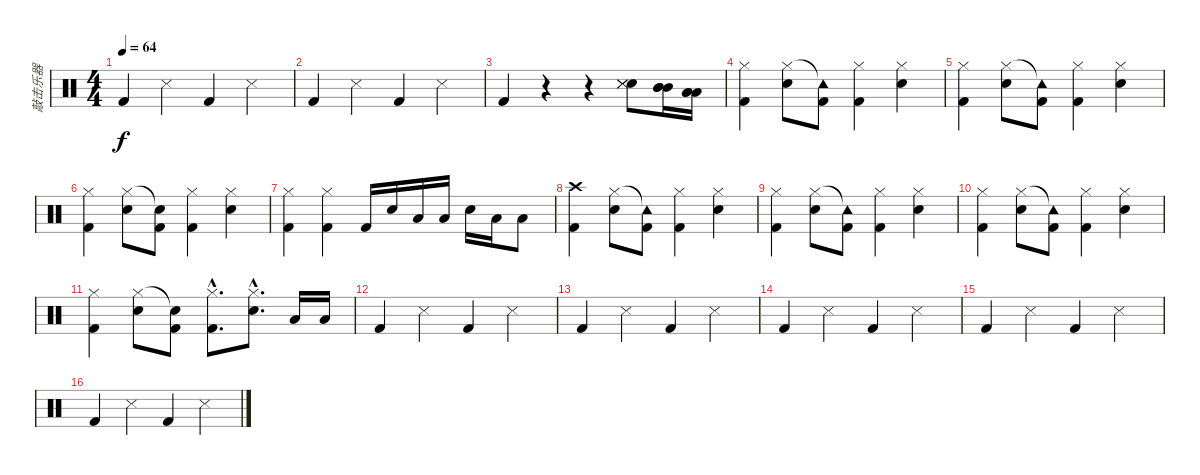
\track ("敲击乐器" "敲击乐器") {instrument percussion}
\staff {score}
\articulation defaults
\ts (4 4)
\tempo 64
\clef neutral
\ks c "Kick (hit) 2".4{dy f} "Snare (side stick) 3".4 "Kick (hit) 2".4 "Snare (side stick) 3".4
|
"Kick (hit) 2".4 "Snare (side stick) 3".4 "Kick (hit) 2".4 "Snare (side stick) 3".4 |
"Kick (hit) 2".4 r.4 r.4 ("Snare (hit) 2" "Metronome (hit)" "Metronome (hit)" "Metronome (hit)").8 ("Mid Tom (hit)" "Mid Tom (hit)" "Mid Tom (hit)").16 ("Low Tom (hit)" "Low Tom (hit)" "Low Tom (hit)").16 |
("Kick (hit) 2" "Hi-Hat (closed)").4 ("Electric Snare (hit)" "Hi-Hat (closed)").8 ("Kick (hit) 2" "Tambourine (hit)"{t}).8 ("Kick (hit) 2" "Hi-Hat (closed)").4 ("Electric Snare (hit)" "Hi-Hat (closed)").4 |
("Kick (hit) 2" "Hi-Hat (closed)").4 ("Electric Snare (hit)" "Hi-Hat (closed)").8 ("Kick (hit) 2" "Tambourine (hit)"{t}).8 ("Kick (hit) 2" "Hi-Hat (closed)").4 ("Electric Snare (hit)" "Hi-Hat (closed)").4 |
("Kick (hit) 2" "Hi-Hat (closed)").4 ("Electric Snare (hit)" "Hi-Hat (closed)").8 ("Kick (hit) 2" "Snare (hit)"{t}).8 ("Kick (hit) 2" "Hi-Hat (closed)").4 ("Electric Snare (hit)" "Hi-Hat (closed)").4 |
("Kick (hit) 2" "Hi-Hat (closed)").4 ("Kick (hit) 2" "Hi-Hat (closed)").4 "Kick (hit) 2".16 "Electric Snare (hit)".16 "Low Tom (hit)".16 "Low Tom (hit)".16 "Electric Snare (hit)".16 "Low Tom (hit)".16 "Low Tom (hit)".8 |
("Kick (hit) 2" "Crash high (hit)").4 ("Electric Snare (hit)" "Hi-Hat (closed)").8 ("Kick (hit) 2" "Tambourine (hit)"{t}).8 ("Kick (hit) 2" "Hi-Hat (closed)").4 ("Electric Snare (hit)" "Hi-Hat (closed)").4 |
("Kick (hit) 2" "Hi-Hat (closed)").4 ("Electric Snare (hit)" "Hi-Hat (closed)").8 ("Kick (hit) 2" "Tambourine (hit)"{t}).8 ("Kick (hit) 2" "Hi-Hat (closed)").4 ("Electric Snare (hit)" "Hi-Hat (closed)").4 |
("Kick (hit) 2" "Hi-Hat (closed)").4 ("Electric Snare (hit)" "Hi-Hat (closed)").8 ("Kick (hit) 2" "Tambourine (hit)"{t}).8 ("Kick (hit) 2" "Hi-Hat (closed)").4 ("Electric Snare (hit)" "Hi-Hat (closed)").4 |
("Kick (hit) 2" "Hi-Hat (closed)").4 ("Electric Snare (hit)" "Hi-Hat (closed)").8 ("Kick (hit) 2" "Snare (hit)"{t}).8 ("Kick (hit) 2"{hac} "Hi-Hat (closed)"{hac}).8{d} ("Electric Snare (hit)"{hac} "Hi-Hat (closed)"{hac}).8{d} "Low Tom (hit)".16 "Low Tom (hit)".16 |
"Kick (hit) 2".4 "Snare (side stick) 3".4 "Kick (hit) 2".4 "Snare (side stick) 3".4 |
"Kick (hit) 2".4 "Snare (side stick) 3".4 "Kick (hit) 2".4 "Snare (side stick) 3".4 |
"Kick (hit) 2".4 "Snare (side stick) 3".4 "Kick (hit) 2".4 "Snare (side stick) 3".4 |
"Kick (hit) 2".4 "Snare (side stick) 3".4 "Kick (hit) 2".4 "Snare (side stick) 3".4 |
"Kick (hit) 2".4 "Snare (side stick) 3".4 "Kick (hit) 2".4 "Snare (side stick) 3".4
